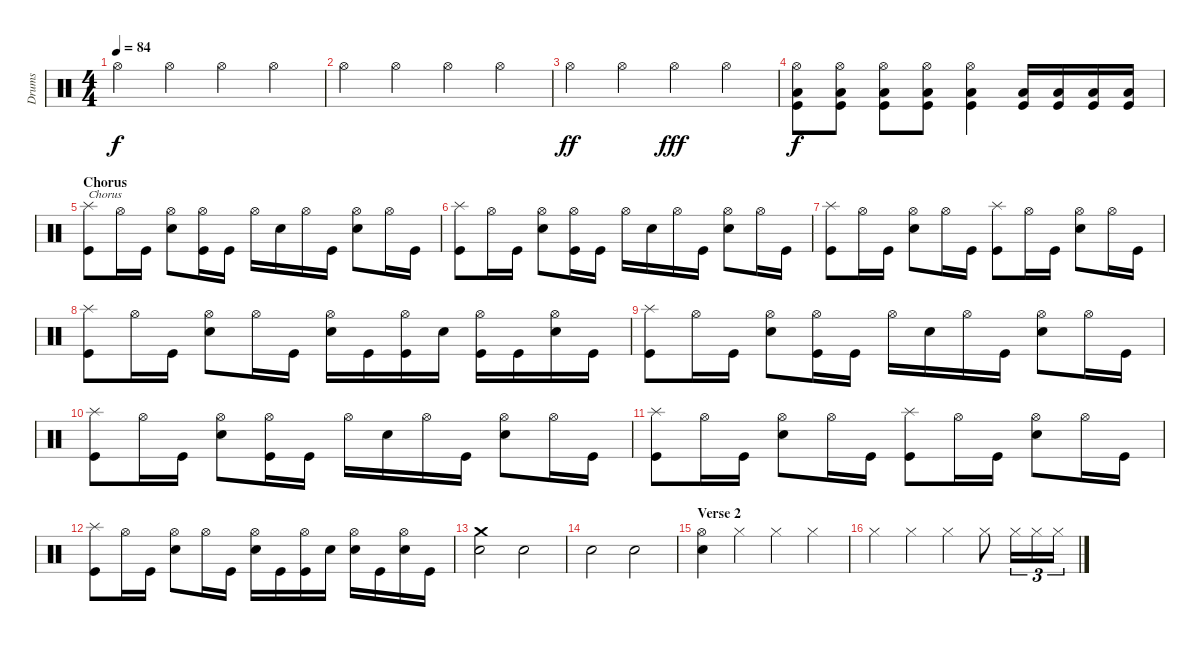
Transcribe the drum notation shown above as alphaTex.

\track ("Drums" "Drums") {instrument percussion}
\staff {score}
\articulation defaults
\ts (4 4)
\tempo 84
\clef neutral
\ks c "Hi-Hat (open)".4{dy f} "Hi-Hat (open)".4 "Hi-Hat (open)".4 "Hi-Hat (open)".4
|
"Hi-Hat (open)".4 "Hi-Hat (open)".4 "Hi-Hat (open)".4 "Hi-Hat (open)".4 |
"Hi-Hat (open)".4{dy ff} "Hi-Hat (open)".4 "Hi-Hat (open)".4{dy fff} "Hi-Hat (open)".4 |
("Hi-Hat (open)" "Low Floor Tom (hit)" "Kick (hit)").8{dy f} ("Hi-Hat (open)" "Low Floor Tom (hit)" "Kick (hit)").8 ("Hi-Hat (open)" "Low Floor Tom (hit)" "Kick (hit)").8 ("Hi-Hat (open)" "Low Floor Tom (hit)" "Kick (hit)").8 ("Hi-Hat (open)" "Low Floor Tom (hit)" "Kick (hit)").4 ("Low Floor Tom (hit)" "Kick (hit)").16 ("Low Floor Tom (hit)" "Kick (hit)").16 ("Low Floor Tom (hit)" "Kick (hit)").16 ("Low Floor Tom (hit)" "Kick (hit)").16 |
\section ("" "Chorus")
("Splash (hit)" "Kick (hit)").8{txt "Chorus"} "Hi-Hat (open)".16 "Kick (hit)".16 ("Hi-Hat (open)" "Snare (hit) 2").8 ("Hi-Hat (open)" "Kick (hit)").16 "Kick (hit)".16 "Hi-Hat (open)".16 "Snare (hit) 2".16 "Hi-Hat (open)".16 "Kick (hit)".16 ("Hi-Hat (open)" "Snare (hit) 2").8 "Hi-Hat (open)".16 "Kick (hit)".16 |
("Splash (hit)" "Kick (hit)").8 "Hi-Hat (open)".16 "Kick (hit)".16 ("Hi-Hat (open)" "Snare (hit) 2").8 ("Hi-Hat (open)" "Kick (hit)").16 "Kick (hit)".16 "Hi-Hat (open)".16 "Snare (hit) 2".16 "Hi-Hat (open)".16 "Kick (hit)".16 ("Hi-Hat (open)" "Snare (hit) 2").8 "Hi-Hat (open)".16 "Kick (hit)".16 |
("Splash (hit)" "Kick (hit)").8 "Hi-Hat (open)".16 "Kick (hit)".16 ("Hi-Hat (open)" "Snare (hit) 2").8 "Hi-Hat (open)".16 "Kick (hit)".16 ("Splash (hit)" "Kick (hit)").8 "Hi-Hat (open)".16 "Kick (hit)".16 ("Hi-Hat (open)" "Snare (hit) 2").8 "Hi-Hat (open)".16 "Kick (hit)".16 |
("Splash (hit)" "Kick (hit)").8 "Hi-Hat (open)".16 "Kick (hit)".16 ("Hi-Hat (open)" "Snare (hit) 2").8 "Hi-Hat (open)".16 "Kick (hit)".16 ("Hi-Hat (open)" "Snare (hit) 2").16 "Kick (hit)".16 ("Hi-Hat (open)" "Kick (hit)").16 "Snare (hit) 2".16 ("Hi-Hat (open)" "Kick (hit)").16 "Kick (hit)".16 ("Hi-Hat (open)" "Snare (hit) 2").16 "Kick (hit)".16 |
("Splash (hit)" "Kick (hit)").8 "Hi-Hat (open)".16 "Kick (hit)".16 ("Hi-Hat (open)" "Snare (hit) 2").8 ("Hi-Hat (open)" "Kick (hit)").16 "Kick (hit)".16 "Hi-Hat (open)".16 "Snare (hit) 2".16 "Hi-Hat (open)".16 "Kick (hit)".16 ("Hi-Hat (open)" "Snare (hit) 2").8 "Hi-Hat (open)".16 "Kick (hit)".16 |
("Splash (hit)" "Kick (hit)").8 "Hi-Hat (open)".16 "Kick (hit)".16 ("Hi-Hat (open)" "Snare (hit) 2").8 ("Hi-Hat (open)" "Kick (hit)").16 "Kick (hit)".16 "Hi-Hat (open)".16 "Snare (hit) 2".16 "Hi-Hat (open)".16 "Kick (hit)".16 ("Hi-Hat (open)" "Snare (hit) 2").8 "Hi-Hat (open)".16 "Kick (hit)".16 |
("Splash (hit)" "Kick (hit)").8 "Hi-Hat (open)".16 "Kick (hit)".16 ("Hi-Hat (open)" "Snare (hit) 2").8 "Hi-Hat (open)".16 "Kick (hit)".16 ("Splash (hit)" "Kick (hit)").8 "Hi-Hat (open)".16 "Kick (hit)".16 ("Hi-Hat (open)" "Snare (hit) 2").8 "Hi-Hat (open)".16 "Kick (hit)".16 |
("Splash (hit)" "Kick (hit)").8 "Hi-Hat (open)".16 "Kick (hit)".16 ("Hi-Hat (open)" "Snare (hit) 2").8 "Hi-Hat (open)".16 "Kick (hit)".16 ("Hi-Hat (open)" "Snare (hit) 2").16 "Kick (hit)".16 ("Hi-Hat (open)" "Kick (hit)").16 "Snare (hit) 2".16 ("Hi-Hat (open)" "Snare (hit) 2").16 "Kick (hit)".16 ("Hi-Hat (open)" "Snare (hit) 2").16 "Kick (hit)".16 |
("Crash medium (hit)" "Snare (hit) 2").2 "Snare (hit) 2".2 |
"Snare (hit) 2".2 "Snare (hit) 2".2 |
\section ("" "Verse 2")
("Hi-Hat (open)" "Snare (hit) 2").4 "Hi-Hat (closed)".4 "Hi-Hat (closed)".4 "Hi-Hat (closed)".4 |
"Hi-Hat (closed)".4 "Hi-Hat (closed)".4 "Hi-Hat (closed)".4 "Hi-Hat (closed)".8 "Hi-Hat (closed)".16{tu (3 2)} "Hi-Hat (closed)".16{tu (3 2)} "Hi-Hat (closed)".16{tu (3 2)}
